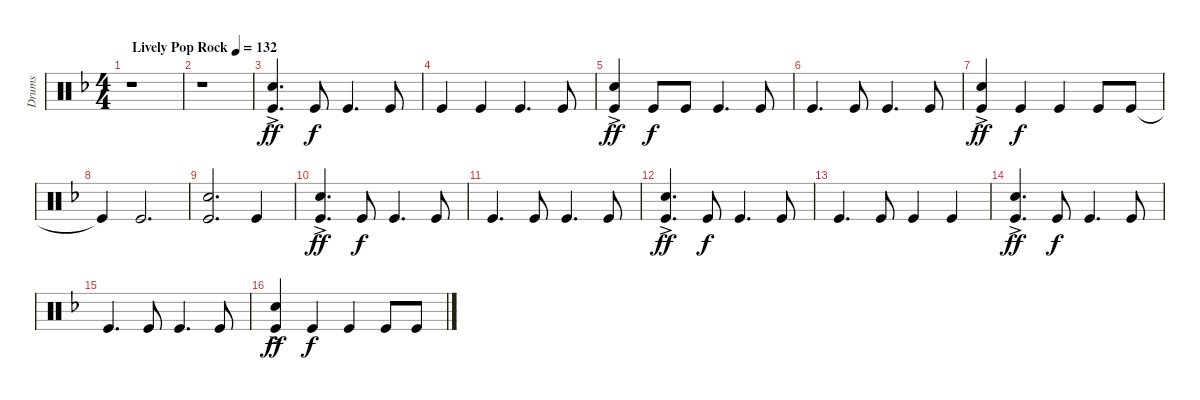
\track ("Drums" "Drums") {instrument percussion}
\staff {score}
\articulation defaults
\ts (4 4)
\tempo (132 "Lively Pop Rock")
\clef neutral
\ks f
r.1{dy ff} |
r.1 |
("Electric Snare (hit)"{ac} "Kick (hit)"{ac}).4{d} "Kick (hit)".8{dy f} "Kick (hit)".4{d} "Kick (hit)".8 |
"Kick (hit)".4 "Kick (hit)".4 "Kick (hit)".4{d} "Kick (hit)".8 |
("Electric Snare (hit)"{ac} "Kick (hit)"{ac}).4{dy ff} "Kick (hit)".8{dy f} "Kick (hit)".8 "Kick (hit)".4{d} "Kick (hit)".8 |
"Kick (hit)".4{d} "Kick (hit)".8 "Kick (hit)".4{d} "Kick (hit)".8 |
("Electric Snare (hit)"{ac} "Kick (hit)"{ac}).4{dy ff} "Kick (hit)".4{dy f} "Kick (hit)".4 "Kick (hit)".8 "Kick (hit)".8 |
"Kick (hit)"{t}.4 "Kick (hit)".2{d} |
("Electric Snare (hit)" "Kick (hit)").2{d} "Kick (hit)".4 |
("Electric Snare (hit)"{ac} "Kick (hit)"{ac}).4{d dy ff} "Kick (hit)".8{dy f} "Kick (hit)".4{d} "Kick (hit)".8 |
"Kick (hit)".4{d} "Kick (hit)".8 "Kick (hit)".4{d} "Kick (hit)".8 |
("Electric Snare (hit)"{ac} "Kick (hit)"{ac}).4{d dy ff} "Kick (hit)".8{dy f} "Kick (hit)".4{d} "Kick (hit)".8 |
"Kick (hit)".4{d} "Kick (hit)".8 "Kick (hit)".4 "Kick (hit)".4 |
("Electric Snare (hit)"{ac} "Kick (hit)"{ac}).4{d dy ff} "Kick (hit)".8{dy f} "Kick (hit)".4{d} "Kick (hit)".8 |
"Kick (hit)".4{d} "Kick (hit)".8 "Kick (hit)".4{d} "Kick (hit)".8 |
("Electric Snare (hit)"{ac} "Kick (hit)"{ac}).4{dy ff} "Kick (hit)".4{dy f} "Kick (hit)".4 "Kick (hit)".8 "Kick (hit)".8
